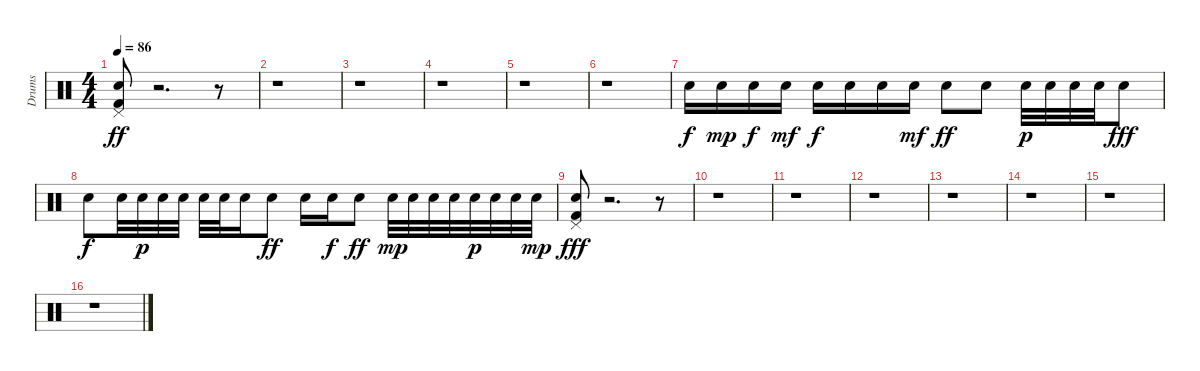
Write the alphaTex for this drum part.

\track ("Drums" "Drums") {instrument percussion}
\staff {score}
\articulation defaults
\ts (4 4)
\tempo 86
\clef neutral
\ks c
("Snare (hit) 2" "Kick (hit) 2" "Pedal Hi-Hat (hit)").8{dy ff} r.2{d} r.8 |
r.1 |
r.1 |
r.1 |
r.1 |
r.1 |
"Snare (hit) 2".16{dy f} "Snare (hit) 2".16{dy mp} "Snare (hit) 2".16{dy f} "Snare (hit) 2".16{dy mf} "Snare (hit) 2".16{dy f} "Snare (hit) 2".16 "Snare (hit) 2".16 "Snare (hit) 2".16{dy mf} "Snare (hit) 2".8{dy ff} "Snare (hit) 2".8 "Snare (hit) 2".32{dy p} "Snare (hit) 2".32 "Snare (hit) 2".32 "Snare (hit) 2".32 "Snare (hit) 2".8{dy fff} |
"Snare (hit) 2".8{dy f} "Snare (hit) 2".32 "Snare (hit) 2".32{dy p} "Snare (hit) 2".32 "Snare (hit) 2".32 "Snare (hit) 2".32 "Snare (hit) 2".32 "Snare (hit) 2".16 "Snare (hit) 2".8{dy ff} "Snare (hit) 2".16 "Snare (hit) 2".16{dy f} "Snare (hit) 2".8{dy ff} "Snare (hit) 2".32{dy mp} "Snare (hit) 2".32 "Snare (hit) 2".32 "Snare (hit) 2".32 "Snare (hit) 2".32{dy p} "Snare (hit) 2".32 "Snare (hit) 2".32 "Snare (hit) 2".32{dy mp} |
("Snare (hit) 2" "Kick (hit) 2" "Pedal Hi-Hat (hit)").8{dy fff} r.2{d} r.8 |
r.1 |
r.1 |
r.1 |
r.1 |
r.1 |
r.1 |
r.1
